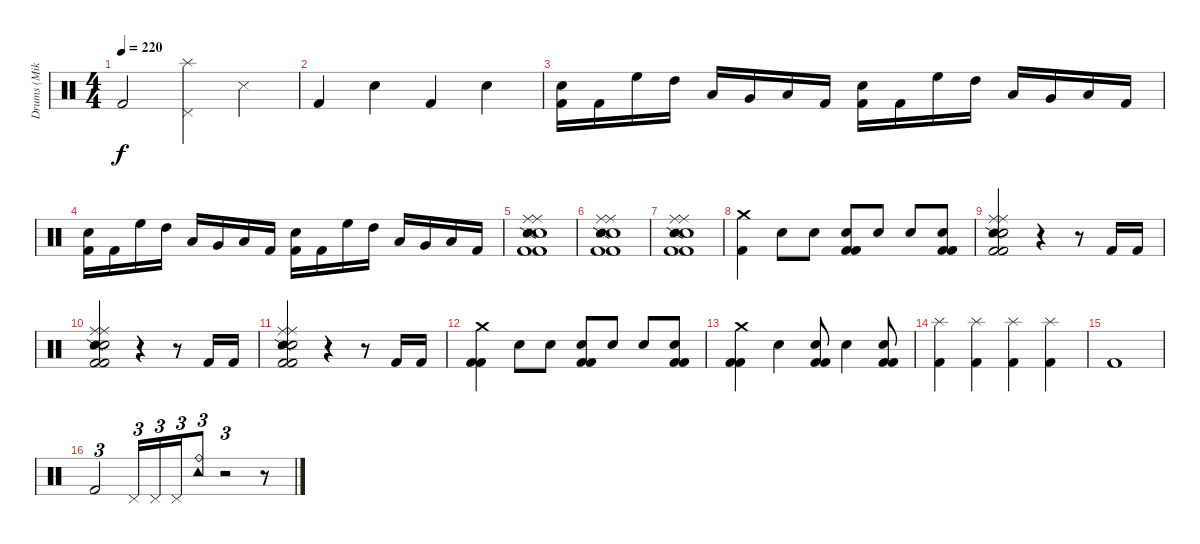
\track ("Drums (Mike Justian)" "Drums (Mik") {instrument percussion}
\staff {score}
\articulation defaults
\ts (4 4)
\tempo 220
\clef neutral
\ks c "Kick (hit) 2".2{dy f}
("Pedal Hi-Hat (hit)" "Splash (hit)").4 "Snare (side stick) 3".4 |
"Kick (hit) 2".4 "Electric Snare (hit)".4 "Kick (hit) 2".4 "Electric Snare (hit)".4 |
("Electric Snare (hit)" "Kick (hit) 2").16 "Kick (hit) 2".16 "High Floor Tom (hit)".16 "High Tom (hit)".16 "Low Tom (hit)".16 "Very Low Tom (hit)".16 "Low Floor Tom (hit)".16 "Kick (hit) 2".16 ("Electric Snare (hit)" "Kick (hit) 2").16 "Kick (hit) 2".16 "High Floor Tom (hit)".16 "High Tom (hit)".16 "Low Tom (hit)".16 "Very Low Tom (hit)".16 "Low Floor Tom (hit)".16 "Kick (hit) 2".16 |
("Electric Snare (hit)" "Kick (hit) 2").16 "Kick (hit) 2".16 "High Floor Tom (hit)".16 "High Tom (hit)".16 "Low Tom (hit)".16 "Very Low Tom (hit)".16 "Low Floor Tom (hit)".16 "Kick (hit) 2".16 ("Electric Snare (hit)" "Kick (hit) 2").16 "Kick (hit) 2".16 "High Floor Tom (hit)".16 "High Tom (hit)".16 "Low Tom (hit)".16 "Very Low Tom (hit)".16 "Low Floor Tom (hit)".16 "Kick (hit) 2".16 |
("Ride (middle)" "Snare (side stick) 2" "Ride (middle)" "Kick (hit) 2" "Electric Snare (hit)" "Kick (hit) 2").1 |
("Ride (middle)" "Snare (side stick) 2" "Ride (middle)" "Kick (hit) 2" "Electric Snare (hit)" "Kick (hit) 2").1 |
("Ride (middle)" "Snare (side stick) 2" "Ride (middle)" "Kick (hit) 2" "Electric Snare (hit)" "Kick (hit) 2").1 |
("Crash medium (hit)" "Kick (hit) 2").4 "Electric Snare (hit)".8 "Electric Snare (hit)".8 ("Kick (hit) 2" "Electric Snare (hit)" "Kick (hit) 2").8 "Electric Snare (hit)".8 "Electric Snare (hit)".8 ("Electric Snare (hit)" "Kick (hit) 2" "Kick (hit) 2").8 |
("Ride (middle)" "Snare (side stick) 2" "Ride (middle)" "Kick (hit) 2" "Electric Snare (hit)" "Kick (hit) 2").2 r.4 r.8 "Kick (hit) 2".16 "Kick (hit) 2".16 |
("Ride (middle)" "Snare (side stick) 2" "Ride (middle)" "Kick (hit) 2" "Electric Snare (hit)" "Kick (hit) 2").2 r.4 r.8 "Kick (hit) 2".16 "Kick (hit) 2".16 |
("Ride (middle)" "Snare (side stick) 2" "Ride (middle)" "Kick (hit) 2" "Electric Snare (hit)" "Kick (hit) 2").2 r.4 r.8 "Kick (hit) 2".16 "Kick (hit) 2".16 |
("Kick (hit) 2" "Crash medium (hit)" "Kick (hit) 2").4 "Electric Snare (hit)".8 "Electric Snare (hit)".8 ("Kick (hit) 2" "Electric Snare (hit)" "Kick (hit) 2").8 "Electric Snare (hit)".8 "Electric Snare (hit)".8 ("Electric Snare (hit)" "Kick (hit) 2" "Kick (hit) 2").8 |
("Kick (hit) 2" "Crash medium (hit)" "Kick (hit) 2").4 "Electric Snare (hit)".4 ("Kick (hit) 2" "Electric Snare (hit)" "Kick (hit) 2").8 "Electric Snare (hit)".4 ("Kick (hit) 2" "Electric Snare (hit)" "Kick (hit) 2").8 |
("Splash (hit)" "Kick (hit) 2").4 ("Splash (hit)" "Kick (hit) 2").4 ("Splash (hit)" "Kick (hit) 2").4 ("Splash (hit)" "Kick (hit) 2").4 |
"Kick (hit) 2".1 |
"Kick (hit) 2".2{tu (3 2)} "Pedal Hi-Hat (hit)".16{tu (3 2)} "Pedal Hi-Hat (hit)".16{tu (3 2)} "Pedal Hi-Hat (hit)".16{tu (3 2)} ("Ride (bell)" "Tambourine (hit)").8{tu (3 2)} r.2{tu (3 2)} r.8
